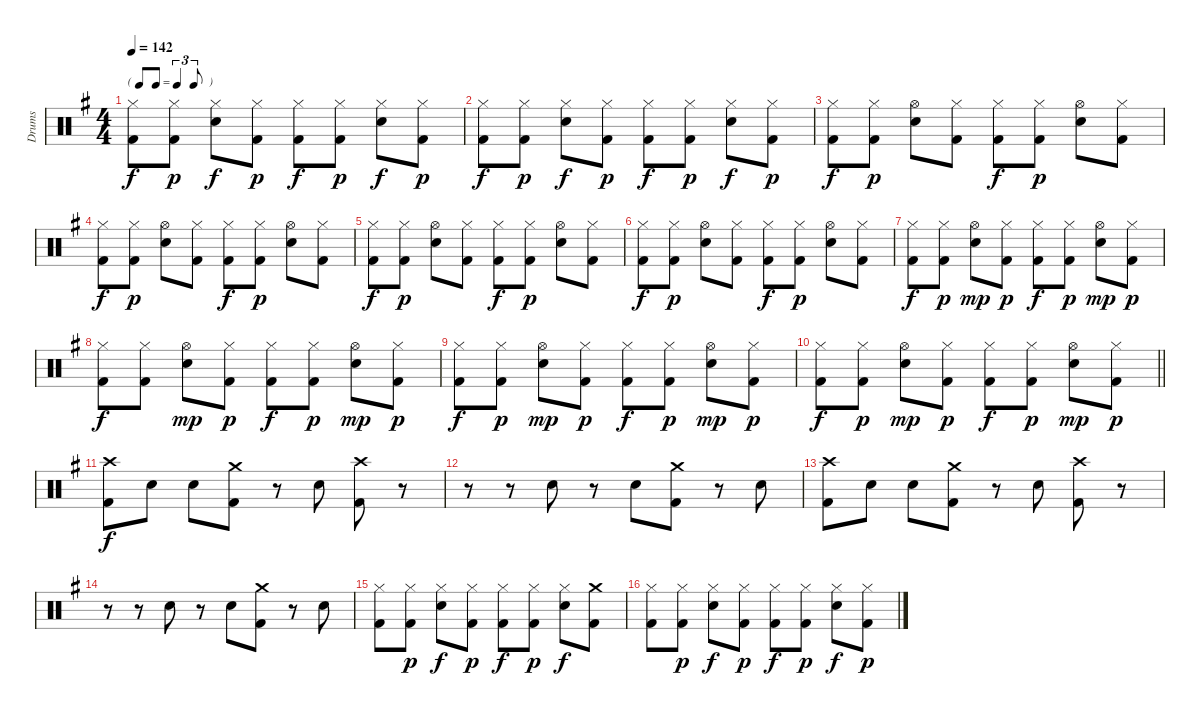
\track ("Drums" "Drums") {instrument percussion}
\staff {score}
\articulation defaults
\ts (4 4)
\tf triplet8th
\tempo 142
\clef neutral
\ks g
("Hi-Hat (closed)" "Kick (hit) 2").8{dy f} ("Hi-Hat (closed)" "Kick (hit) 2").8{dy p} ("Hi-Hat (closed)" "Snare (hit) 2").8{dy f} ("Hi-Hat (closed)" "Kick (hit) 2").8{dy p} ("Hi-Hat (closed)" "Kick (hit) 2").8{dy f} ("Hi-Hat (closed)" "Kick (hit) 2").8{dy p} ("Hi-Hat (closed)" "Snare (hit) 2").8{dy f} ("Hi-Hat (closed)" "Kick (hit) 2").8{dy p} |
("Hi-Hat (closed)" "Kick (hit) 2").8{dy f} ("Hi-Hat (closed)" "Kick (hit) 2").8{dy p} ("Hi-Hat (closed)" "Snare (hit) 2").8{dy f} ("Hi-Hat (closed)" "Kick (hit) 2").8{dy p} ("Hi-Hat (closed)" "Kick (hit) 2").8{dy f} ("Hi-Hat (closed)" "Kick (hit) 2").8{dy p} ("Hi-Hat (closed)" "Snare (hit) 2").8{dy f} ("Hi-Hat (closed)" "Kick (hit) 2").8{dy p} |
("Hi-Hat (closed)" "Kick (hit) 2").8{dy f} ("Hi-Hat (closed)" "Kick (hit) 2").8{dy p} ("Hi-Hat (open)" "Snare (hit) 2").8 ("Hi-Hat (closed)" "Kick (hit) 2").8 ("Hi-Hat (closed)" "Kick (hit) 2").8{dy f} ("Hi-Hat (closed)" "Kick (hit) 2").8{dy p} ("Hi-Hat (open)" "Snare (hit) 2").8 ("Hi-Hat (closed)" "Kick (hit) 2").8 |
("Hi-Hat (closed)" "Kick (hit) 2").8{dy f} ("Hi-Hat (closed)" "Kick (hit) 2").8{dy p} ("Hi-Hat (open)" "Snare (hit) 2").8 ("Hi-Hat (closed)" "Kick (hit) 2").8 ("Hi-Hat (closed)" "Kick (hit) 2").8{dy f} ("Hi-Hat (closed)" "Kick (hit) 2").8{dy p} ("Hi-Hat (open)" "Snare (hit) 2").8 ("Hi-Hat (closed)" "Kick (hit) 2").8 |
("Hi-Hat (closed)" "Kick (hit) 2").8{dy f} ("Hi-Hat (closed)" "Kick (hit) 2").8{dy p} ("Hi-Hat (open)" "Snare (hit) 2").8 ("Hi-Hat (closed)" "Kick (hit) 2").8 ("Hi-Hat (closed)" "Kick (hit) 2").8{dy f} ("Hi-Hat (closed)" "Kick (hit) 2").8{dy p} ("Hi-Hat (open)" "Snare (hit) 2").8 ("Hi-Hat (closed)" "Kick (hit) 2").8 |
("Hi-Hat (closed)" "Kick (hit) 2").8{dy f} ("Hi-Hat (closed)" "Kick (hit) 2").8{dy p} ("Hi-Hat (open)" "Snare (hit) 2").8 ("Hi-Hat (closed)" "Kick (hit) 2").8 ("Hi-Hat (closed)" "Kick (hit) 2").8{dy f} ("Hi-Hat (closed)" "Kick (hit) 2").8{dy p} ("Hi-Hat (open)" "Snare (hit) 2").8 ("Hi-Hat (closed)" "Kick (hit) 2").8 |
("Hi-Hat (closed)" "Kick (hit) 2").8{dy f} ("Hi-Hat (closed)" "Kick (hit) 2").8{dy p} ("Hi-Hat (open)" "Snare (hit) 2").8{dy mp} ("Hi-Hat (closed)" "Kick (hit) 2").8{dy p} ("Hi-Hat (closed)" "Kick (hit) 2").8{dy f} ("Hi-Hat (closed)" "Kick (hit) 2").8{dy p} ("Hi-Hat (open)" "Snare (hit) 2").8{dy mp} ("Hi-Hat (closed)" "Kick (hit) 2").8{dy p} |
("Hi-Hat (closed)" "Kick (hit) 2").8{dy f} ("Hi-Hat (closed)" "Kick (hit) 2").8 ("Hi-Hat (open)" "Snare (hit) 2").8{dy mp} ("Hi-Hat (closed)" "Kick (hit) 2").8{dy p} ("Hi-Hat (closed)" "Kick (hit) 2").8{dy f} ("Hi-Hat (closed)" "Kick (hit) 2").8{dy p} ("Hi-Hat (open)" "Snare (hit) 2").8{dy mp} ("Hi-Hat (closed)" "Kick (hit) 2").8{dy p} |
("Hi-Hat (closed)" "Kick (hit) 2").8{dy f} ("Hi-Hat (closed)" "Kick (hit) 2").8{dy p} ("Hi-Hat (open)" "Snare (hit) 2").8{dy mp} ("Hi-Hat (closed)" "Kick (hit) 2").8{dy p} ("Hi-Hat (closed)" "Kick (hit) 2").8{dy f} ("Hi-Hat (closed)" "Kick (hit) 2").8{dy p} ("Hi-Hat (open)" "Snare (hit) 2").8{dy mp} ("Hi-Hat (closed)" "Kick (hit) 2").8{dy p} |
\barLineRight lightlight
("Hi-Hat (closed)" "Kick (hit) 2").8{dy f} ("Hi-Hat (closed)" "Kick (hit) 2").8{dy p} ("Hi-Hat (open)" "Snare (hit) 2").8{dy mp} ("Hi-Hat (closed)" "Kick (hit) 2").8{dy p} ("Hi-Hat (closed)" "Kick (hit) 2").8{dy f} ("Hi-Hat (closed)" "Kick (hit) 2").8{dy p} ("Hi-Hat (open)" "Snare (hit) 2").8{dy mp} ("Hi-Hat (closed)" "Kick (hit) 2").8{dy p} |
("Crash high (hit)" "Kick (hit) 2").8{dy f} "Snare (hit) 2".8 "Snare (hit) 2".8 ("Crash medium (hit)" "Kick (hit) 2").8 r.8 "Snare (hit) 2".8 ("Crash high (hit)" "Kick (hit) 2").8 r.8 |
r.8 r.8 "Snare (hit) 2".8 r.8 "Snare (hit) 2".8 ("Crash medium (hit)" "Kick (hit) 2").8 r.8 "Snare (hit) 2".8 |
("Crash high (hit)" "Kick (hit) 2").8 "Snare (hit) 2".8 "Snare (hit) 2".8 ("Crash medium (hit)" "Kick (hit) 2").8 r.8 "Snare (hit) 2".8 ("Crash high (hit)" "Kick (hit) 2").8 r.8 |
r.8 r.8 "Snare (hit) 2".8 r.8 "Snare (hit) 2".8 ("Crash medium (hit)" "Kick (hit) 2").8 r.8 "Snare (hit) 2".8 |
("Hi-Hat (closed)" "Kick (hit) 2").8 ("Hi-Hat (closed)" "Kick (hit) 2").8{dy p} ("Hi-Hat (closed)" "Snare (hit) 2").8{dy f} ("Hi-Hat (closed)" "Kick (hit) 2").8{dy p} ("Hi-Hat (closed)" "Kick (hit) 2").8{dy f} ("Hi-Hat (closed)" "Kick (hit) 2").8{dy p} ("Hi-Hat (closed)" "Snare (hit) 2").8{dy f} ("Crash medium (hit)" "Kick (hit) 2").8 |
("Hi-Hat (closed)" "Kick (hit) 2").8 ("Hi-Hat (closed)" "Kick (hit) 2").8{dy p} ("Hi-Hat (closed)" "Snare (hit) 2").8{dy f} ("Hi-Hat (closed)" "Kick (hit) 2").8{dy p} ("Hi-Hat (closed)" "Kick (hit) 2").8{dy f} ("Hi-Hat (closed)" "Kick (hit) 2").8{dy p} ("Hi-Hat (closed)" "Snare (hit) 2").8{dy f} ("Hi-Hat (closed)" "Kick (hit) 2").8{dy p}
